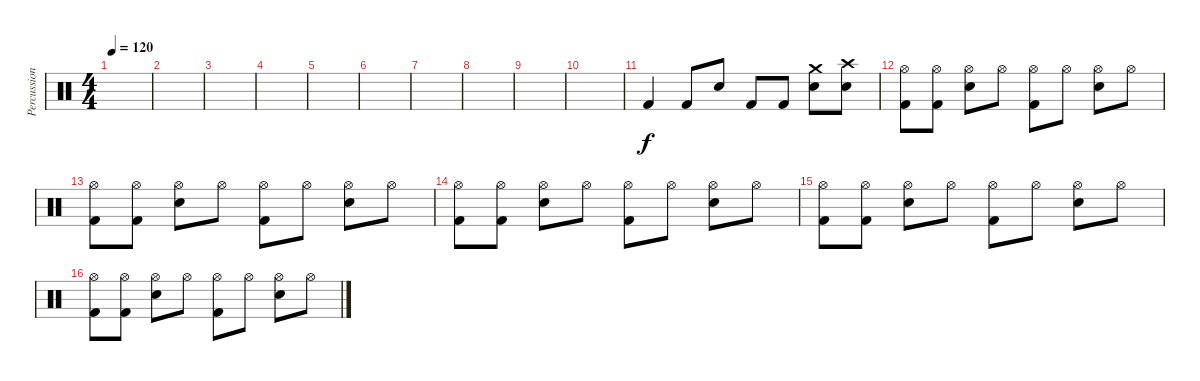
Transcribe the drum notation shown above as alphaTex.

\track ("Percussion" "Percussion") {instrument percussion}
\staff {score}
\articulation defaults
\ts (4 4)
\tempo 120
\clef neutral
\ks c
|
|
|
|
|
|
|
|
|
|
"Kick (hit) 2".4 "Kick (hit) 2".8 "Snare (hit) 2".8 "Kick (hit) 2".8 "Kick (hit) 2".8 ("Crash medium (hit)" "Snare (hit) 2").8 ("Crash high (hit)" "Snare (hit) 2").8 |
("Hi-Hat (open)" "Kick (hit) 2").8 ("Hi-Hat (open)" "Kick (hit) 2").8 ("Hi-Hat (open)" "Snare (hit) 2").8 "Hi-Hat (open)".8 ("Hi-Hat (open)" "Kick (hit) 2").8 "Hi-Hat (open)".8 ("Hi-Hat (open)" "Snare (hit) 2").8 "Hi-Hat (open)".8 |
("Hi-Hat (open)" "Kick (hit) 2").8 ("Hi-Hat (open)" "Kick (hit) 2").8 ("Hi-Hat (open)" "Snare (hit) 2").8 "Hi-Hat (open)".8 ("Hi-Hat (open)" "Kick (hit) 2").8 "Hi-Hat (open)".8 ("Hi-Hat (open)" "Snare (hit) 2").8 "Hi-Hat (open)".8 |
("Hi-Hat (open)" "Kick (hit) 2").8 ("Hi-Hat (open)" "Kick (hit) 2").8 ("Hi-Hat (open)" "Snare (hit) 2").8 "Hi-Hat (open)".8 ("Hi-Hat (open)" "Kick (hit) 2").8 "Hi-Hat (open)".8 ("Hi-Hat (open)" "Snare (hit) 2").8 "Hi-Hat (open)".8 |
("Hi-Hat (open)" "Kick (hit) 2").8 ("Hi-Hat (open)" "Kick (hit) 2").8 ("Hi-Hat (open)" "Snare (hit) 2").8 "Hi-Hat (open)".8 ("Hi-Hat (open)" "Kick (hit) 2").8 "Hi-Hat (open)".8 ("Hi-Hat (open)" "Snare (hit) 2").8 "Hi-Hat (open)".8 |
("Hi-Hat (open)" "Kick (hit) 2").8 ("Hi-Hat (open)" "Kick (hit) 2").8 ("Hi-Hat (open)" "Snare (hit) 2").8 "Hi-Hat (open)".8 ("Hi-Hat (open)" "Kick (hit) 2").8 "Hi-Hat (open)".8 ("Hi-Hat (open)" "Snare (hit) 2").8 "Hi-Hat (open)".8
